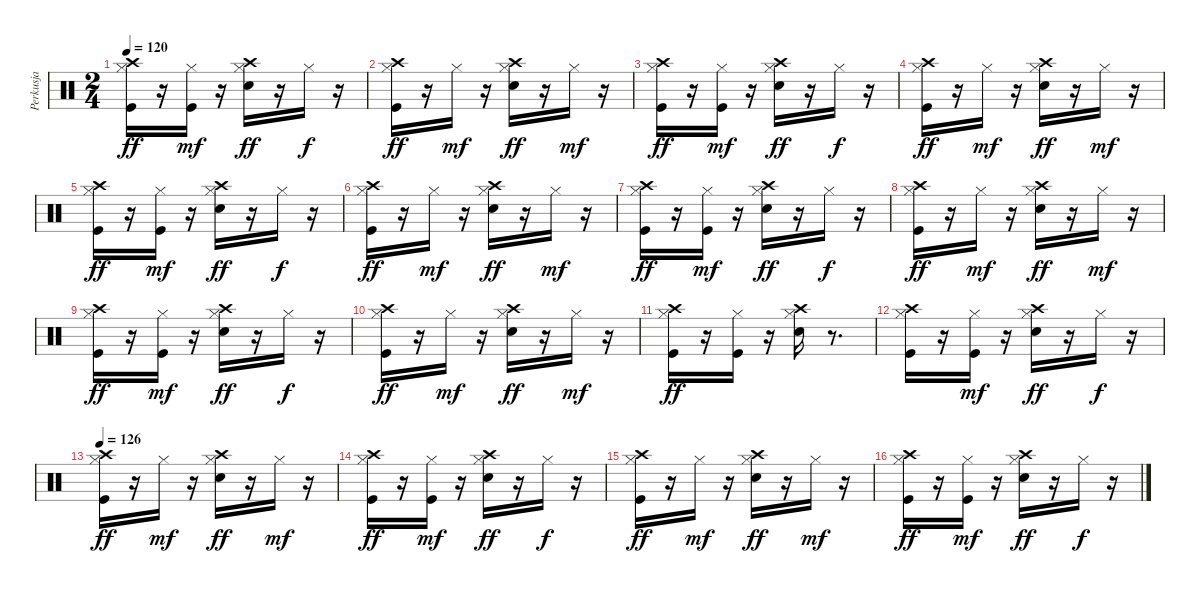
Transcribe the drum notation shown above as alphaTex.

\track ("Perkusja" "Perkusja") {instrument percussion}
\staff {score}
\articulation defaults
\ts (2 4)
\tempo 120
\clef neutral
\ks c
("Kick (hit)" "Hi-Hat (closed)" "Crash high (hit)").16{dy ff} r.16 ("Kick (hit)" "Hi-Hat (closed)").16{dy mf} r.16 ("Snare (hit) 2" "Hi-Hat (closed)" "Crash high (hit)").16{dy ff} r.16 "Hi-Hat (closed)".16{dy f} r.16 |
("Kick (hit)" "Hi-Hat (closed)" "Crash high (hit)").16{dy ff} r.16 "Hi-Hat (closed)".16{dy mf} r.16 ("Snare (hit) 2" "Hi-Hat (closed)" "Crash high (hit)").16{dy ff} r.16 "Hi-Hat (closed)".16{dy mf} r.16 |
("Kick (hit)" "Hi-Hat (closed)" "Crash high (hit)").16{dy ff} r.16 ("Kick (hit)" "Hi-Hat (closed)").16{dy mf} r.16 ("Snare (hit) 2" "Hi-Hat (closed)" "Crash high (hit)").16{dy ff} r.16 "Hi-Hat (closed)".16{dy f} r.16 |
("Kick (hit)" "Hi-Hat (closed)" "Crash high (hit)").16{dy ff} r.16 "Hi-Hat (closed)".16{dy mf} r.16 ("Snare (hit) 2" "Hi-Hat (closed)" "Crash high (hit)").16{dy ff} r.16 "Hi-Hat (closed)".16{dy mf} r.16 |
("Kick (hit)" "Hi-Hat (closed)" "Crash high (hit)").16{dy ff} r.16 ("Kick (hit)" "Hi-Hat (closed)").16{dy mf} r.16 ("Snare (hit) 2" "Hi-Hat (closed)" "Crash high (hit)").16{dy ff} r.16 "Hi-Hat (closed)".16{dy f} r.16 |
("Kick (hit)" "Hi-Hat (closed)" "Crash high (hit)").16{dy ff} r.16 "Hi-Hat (closed)".16{dy mf} r.16 ("Snare (hit) 2" "Hi-Hat (closed)" "Crash high (hit)").16{dy ff} r.16 "Hi-Hat (closed)".16{dy mf} r.16 |
("Kick (hit)" "Hi-Hat (closed)" "Crash high (hit)").16{dy ff} r.16 ("Kick (hit)" "Hi-Hat (closed)").16{dy mf} r.16 ("Snare (hit) 2" "Hi-Hat (closed)" "Crash high (hit)").16{dy ff} r.16 "Hi-Hat (closed)".16{dy f} r.16 |
("Kick (hit)" "Hi-Hat (closed)" "Crash high (hit)").16{dy ff} r.16 "Hi-Hat (closed)".16{dy mf} r.16 ("Snare (hit) 2" "Hi-Hat (closed)" "Crash high (hit)").16{dy ff} r.16 "Hi-Hat (closed)".16{dy mf} r.16 |
("Kick (hit)" "Hi-Hat (closed)" "Crash high (hit)").16{dy ff} r.16 ("Kick (hit)" "Hi-Hat (closed)").16{dy mf} r.16 ("Snare (hit) 2" "Hi-Hat (closed)" "Crash high (hit)").16{dy ff} r.16 "Hi-Hat (closed)".16{dy f} r.16 |
("Kick (hit)" "Hi-Hat (closed)" "Crash high (hit)").16{dy ff} r.16 "Hi-Hat (closed)".16{dy mf} r.16 ("Snare (hit) 2" "Hi-Hat (closed)" "Crash high (hit)").16{dy ff} r.16 "Hi-Hat (closed)".16{dy mf} r.16 |
("Kick (hit)" "Hi-Hat (closed)" "Crash high (hit)").16{dy ff} r.16 ("Kick (hit)" "Hi-Hat (closed)").16 r.16 ("Snare (hit) 2" "Hi-Hat (closed)" "Crash high (hit)").16 r.8{d} |
("Kick (hit)" "Hi-Hat (closed)" "Crash high (hit)").16 r.16 ("Kick (hit)" "Hi-Hat (closed)").16{dy mf} r.16 ("Snare (hit) 2" "Hi-Hat (closed)" "Crash high (hit)").16{dy ff} r.16 "Hi-Hat (closed)".16{dy f} r.16 |
\tempo 126
("Kick (hit)" "Hi-Hat (closed)" "Crash high (hit)").16{dy ff} r.16 "Hi-Hat (closed)".16{dy mf} r.16 ("Snare (hit) 2" "Hi-Hat (closed)" "Crash high (hit)").16{dy ff} r.16 "Hi-Hat (closed)".16{dy mf} r.16 |
("Kick (hit)" "Hi-Hat (closed)" "Crash high (hit)").16{dy ff} r.16 ("Kick (hit)" "Hi-Hat (closed)").16{dy mf} r.16 ("Snare (hit) 2" "Hi-Hat (closed)" "Crash high (hit)").16{dy ff} r.16 "Hi-Hat (closed)".16{dy f} r.16 |
("Kick (hit)" "Hi-Hat (closed)" "Crash high (hit)").16{dy ff} r.16 "Hi-Hat (closed)".16{dy mf} r.16 ("Snare (hit) 2" "Hi-Hat (closed)" "Crash high (hit)").16{dy ff} r.16 "Hi-Hat (closed)".16{dy mf} r.16 |
("Kick (hit)" "Hi-Hat (closed)" "Crash high (hit)").16{dy ff} r.16 ("Kick (hit)" "Hi-Hat (closed)").16{dy mf} r.16 ("Snare (hit) 2" "Hi-Hat (closed)" "Crash high (hit)").16{dy ff} r.16 "Hi-Hat (closed)".16{dy f} r.16
